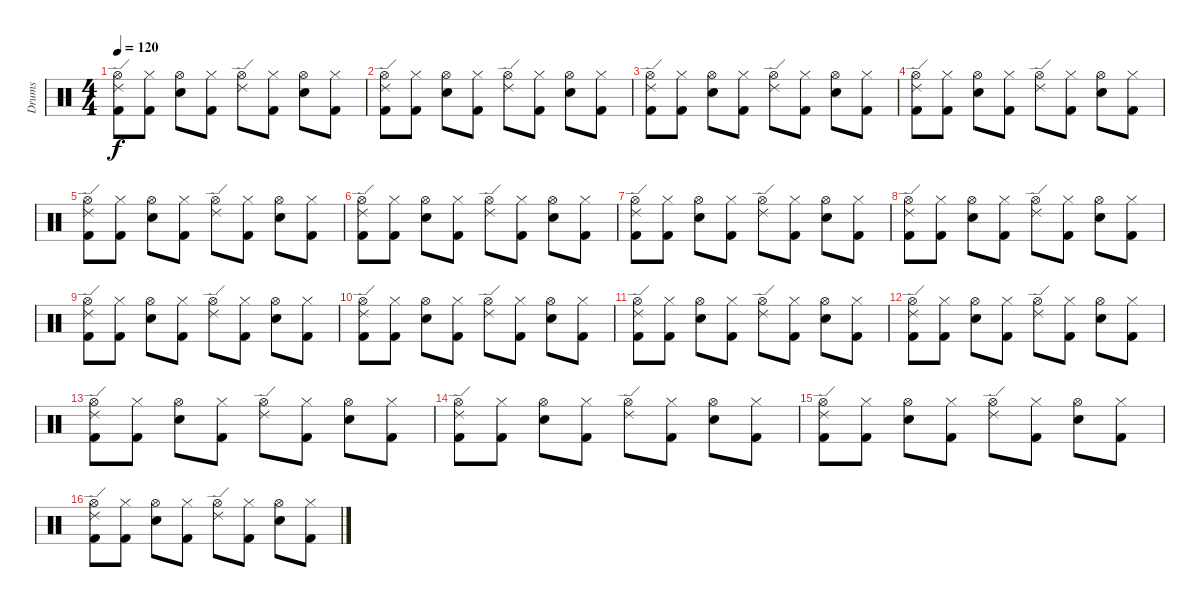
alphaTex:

\track ("Drums" "Drums") {instrument percussion}
\staff {score}
\articulation defaults
\ts (4 4)
\tempo 120
\clef neutral
\ks c
("Hi-Hat (open)" "Ride (edge) 2" "Kick (hit) 2").8{dy f} ("Hi-Hat (closed)" "Kick (hit) 2").8 ("Hi-Hat (open)" "Snare (hit) 2").8 ("Hi-Hat (closed)" "Kick (hit) 2").8 ("Hi-Hat (open)" "Ride (edge) 2").8 ("Hi-Hat (closed)" "Kick (hit) 2").8 ("Hi-Hat (open)" "Snare (hit) 2").8 ("Hi-Hat (closed)" "Kick (hit) 2").8 |
("Hi-Hat (open)" "Ride (edge) 2" "Kick (hit) 2").8 ("Hi-Hat (closed)" "Kick (hit) 2").8 ("Hi-Hat (open)" "Snare (hit) 2").8 ("Hi-Hat (closed)" "Kick (hit) 2").8 ("Hi-Hat (open)" "Ride (edge) 2").8 ("Hi-Hat (closed)" "Kick (hit) 2").8 ("Hi-Hat (open)" "Snare (hit) 2").8 ("Hi-Hat (closed)" "Kick (hit) 2").8 |
("Hi-Hat (open)" "Ride (edge) 2" "Kick (hit) 2").8 ("Hi-Hat (closed)" "Kick (hit) 2").8 ("Hi-Hat (open)" "Snare (hit) 2").8 ("Hi-Hat (closed)" "Kick (hit) 2").8 ("Hi-Hat (open)" "Ride (edge) 2").8 ("Hi-Hat (closed)" "Kick (hit) 2").8 ("Hi-Hat (open)" "Snare (hit) 2").8 ("Hi-Hat (closed)" "Kick (hit) 2").8 |
("Hi-Hat (open)" "Ride (edge) 2" "Kick (hit) 2").8 ("Hi-Hat (closed)" "Kick (hit) 2").8 ("Hi-Hat (open)" "Snare (hit) 2").8 ("Hi-Hat (closed)" "Kick (hit) 2").8 ("Hi-Hat (open)" "Ride (edge) 2").8 ("Hi-Hat (closed)" "Kick (hit) 2").8 ("Hi-Hat (open)" "Snare (hit) 2").8 ("Hi-Hat (closed)" "Kick (hit) 2").8 |
("Hi-Hat (open)" "Ride (edge) 2" "Kick (hit) 2").8 ("Hi-Hat (closed)" "Kick (hit) 2").8 ("Hi-Hat (open)" "Snare (hit) 2").8 ("Hi-Hat (closed)" "Kick (hit) 2").8 ("Hi-Hat (open)" "Ride (edge) 2").8 ("Hi-Hat (closed)" "Kick (hit) 2").8 ("Hi-Hat (open)" "Snare (hit) 2").8 ("Hi-Hat (closed)" "Kick (hit) 2").8 |
("Hi-Hat (open)" "Ride (edge) 2" "Kick (hit) 2").8 ("Hi-Hat (closed)" "Kick (hit) 2").8 ("Hi-Hat (open)" "Snare (hit) 2").8 ("Hi-Hat (closed)" "Kick (hit) 2").8 ("Hi-Hat (open)" "Ride (edge) 2").8 ("Hi-Hat (closed)" "Kick (hit) 2").8 ("Hi-Hat (open)" "Snare (hit) 2").8 ("Hi-Hat (closed)" "Kick (hit) 2").8 |
("Hi-Hat (open)" "Ride (edge) 2" "Kick (hit) 2").8 ("Hi-Hat (closed)" "Kick (hit) 2").8 ("Hi-Hat (open)" "Snare (hit) 2").8 ("Hi-Hat (closed)" "Kick (hit) 2").8 ("Hi-Hat (open)" "Ride (edge) 2").8 ("Hi-Hat (closed)" "Kick (hit) 2").8 ("Hi-Hat (open)" "Snare (hit) 2").8 ("Hi-Hat (closed)" "Kick (hit) 2").8 |
("Hi-Hat (open)" "Ride (edge) 2" "Kick (hit) 2").8 ("Hi-Hat (closed)" "Kick (hit) 2").8 ("Hi-Hat (open)" "Snare (hit) 2").8 ("Hi-Hat (closed)" "Kick (hit) 2").8 ("Hi-Hat (open)" "Ride (edge) 2").8 ("Hi-Hat (closed)" "Kick (hit) 2").8 ("Hi-Hat (open)" "Snare (hit) 2").8 ("Hi-Hat (closed)" "Kick (hit) 2").8 |
("Hi-Hat (open)" "Ride (edge) 2" "Kick (hit) 2").8 ("Hi-Hat (closed)" "Kick (hit) 2").8 ("Hi-Hat (open)" "Snare (hit) 2").8 ("Hi-Hat (closed)" "Kick (hit) 2").8 ("Hi-Hat (open)" "Ride (edge) 2").8 ("Hi-Hat (closed)" "Kick (hit) 2").8 ("Hi-Hat (open)" "Snare (hit) 2").8 ("Hi-Hat (closed)" "Kick (hit) 2").8 |
("Hi-Hat (open)" "Ride (edge) 2" "Kick (hit) 2").8 ("Hi-Hat (closed)" "Kick (hit) 2").8 ("Hi-Hat (open)" "Snare (hit) 2").8 ("Hi-Hat (closed)" "Kick (hit) 2").8 ("Hi-Hat (open)" "Ride (edge) 2").8 ("Hi-Hat (closed)" "Kick (hit) 2").8 ("Hi-Hat (open)" "Snare (hit) 2").8 ("Hi-Hat (closed)" "Kick (hit) 2").8 |
("Hi-Hat (open)" "Ride (edge) 2" "Kick (hit) 2").8 ("Hi-Hat (closed)" "Kick (hit) 2").8 ("Hi-Hat (open)" "Snare (hit) 2").8 ("Hi-Hat (closed)" "Kick (hit) 2").8 ("Hi-Hat (open)" "Ride (edge) 2").8 ("Hi-Hat (closed)" "Kick (hit) 2").8 ("Hi-Hat (open)" "Snare (hit) 2").8 ("Hi-Hat (closed)" "Kick (hit) 2").8 |
("Hi-Hat (open)" "Ride (edge) 2" "Kick (hit) 2").8 ("Hi-Hat (closed)" "Kick (hit) 2").8 ("Hi-Hat (open)" "Snare (hit) 2").8 ("Hi-Hat (closed)" "Kick (hit) 2").8 ("Hi-Hat (open)" "Ride (edge) 2").8 ("Hi-Hat (closed)" "Kick (hit) 2").8 ("Hi-Hat (open)" "Snare (hit) 2").8 ("Hi-Hat (closed)" "Kick (hit) 2").8 |
("Hi-Hat (open)" "Ride (edge) 2" "Kick (hit) 2").8 ("Hi-Hat (closed)" "Kick (hit) 2").8 ("Hi-Hat (open)" "Snare (hit) 2").8 ("Hi-Hat (closed)" "Kick (hit) 2").8 ("Hi-Hat (open)" "Ride (edge) 2").8 ("Hi-Hat (closed)" "Kick (hit) 2").8 ("Hi-Hat (open)" "Snare (hit) 2").8 ("Hi-Hat (closed)" "Kick (hit) 2").8 |
("Hi-Hat (open)" "Ride (edge) 2" "Kick (hit) 2").8 ("Hi-Hat (closed)" "Kick (hit) 2").8 ("Hi-Hat (open)" "Snare (hit) 2").8 ("Hi-Hat (closed)" "Kick (hit) 2").8 ("Hi-Hat (open)" "Ride (edge) 2").8 ("Hi-Hat (closed)" "Kick (hit) 2").8 ("Hi-Hat (open)" "Snare (hit) 2").8 ("Hi-Hat (closed)" "Kick (hit) 2").8 |
("Hi-Hat (open)" "Ride (edge) 2" "Kick (hit) 2").8 ("Hi-Hat (closed)" "Kick (hit) 2").8 ("Hi-Hat (open)" "Snare (hit) 2").8 ("Hi-Hat (closed)" "Kick (hit) 2").8 ("Hi-Hat (open)" "Ride (edge) 2").8 ("Hi-Hat (closed)" "Kick (hit) 2").8 ("Hi-Hat (open)" "Snare (hit) 2").8 ("Hi-Hat (closed)" "Kick (hit) 2").8 |
("Hi-Hat (open)" "Ride (edge) 2" "Kick (hit) 2").8 ("Hi-Hat (closed)" "Kick (hit) 2").8 ("Hi-Hat (open)" "Snare (hit) 2").8 ("Hi-Hat (closed)" "Kick (hit) 2").8 ("Hi-Hat (open)" "Ride (edge) 2").8 ("Hi-Hat (closed)" "Kick (hit) 2").8 ("Hi-Hat (open)" "Snare (hit) 2").8 ("Hi-Hat (closed)" "Kick (hit) 2").8
